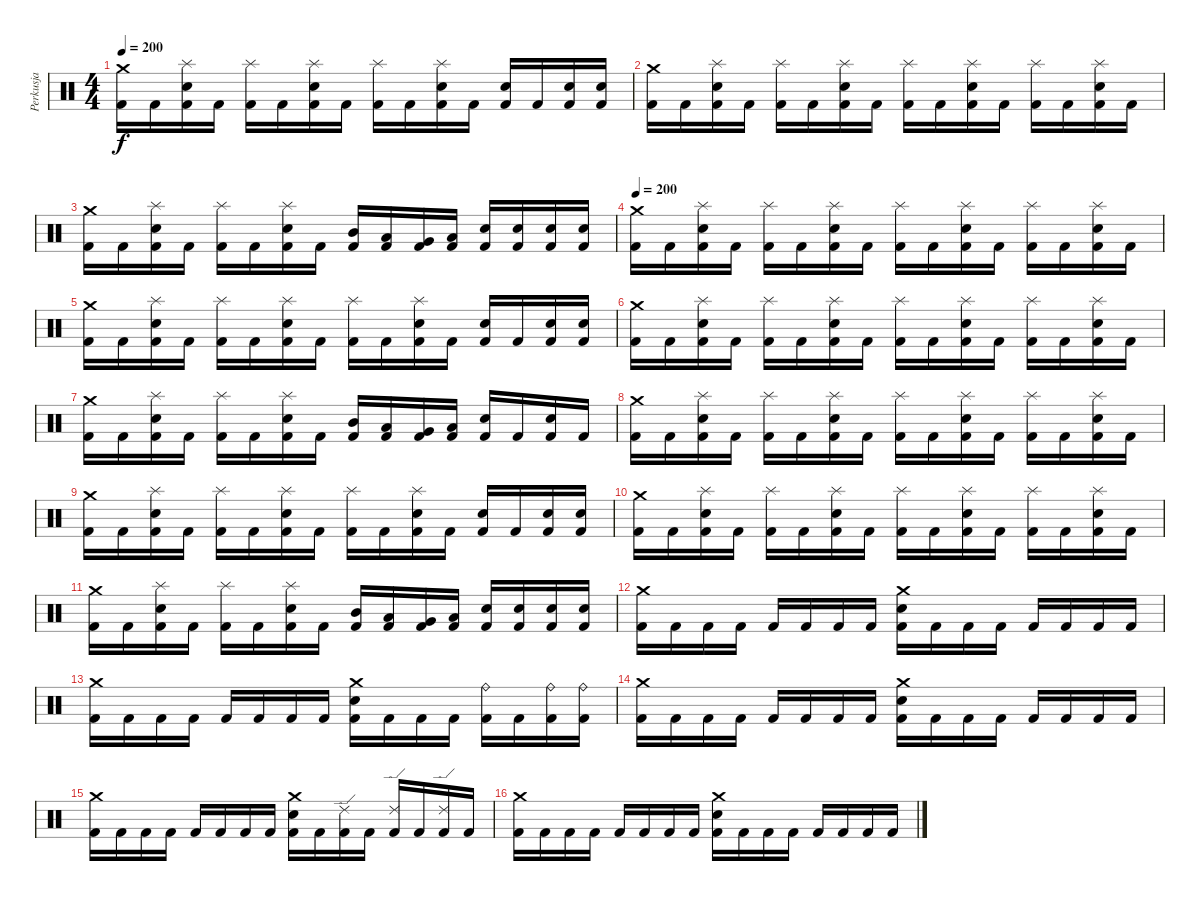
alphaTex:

\track ("Perkusja" "Perkusja") {instrument percussion}
\staff {score}
\articulation defaults
\ts (4 4)
\tempo 200
\clef neutral
\ks c
("Crash medium (hit)" "Kick (hit) 2").16{dy f} "Kick (hit) 2".16 ("Splash (hit)" "Electric Snare (hit)" "Kick (hit) 2").16 "Kick (hit) 2".16 ("Splash (hit)" "Kick (hit) 2").16 "Kick (hit) 2".16 ("Splash (hit)" "Electric Snare (hit)" "Kick (hit) 2").16 "Kick (hit) 2".16 ("Splash (hit)" "Kick (hit) 2").16 "Kick (hit) 2".16 ("Splash (hit)" "Electric Snare (hit)" "Kick (hit) 2").16 "Kick (hit) 2".16 ("Electric Snare (hit)" "Kick (hit) 2").16 "Kick (hit) 2".16 ("Electric Snare (hit)" "Kick (hit) 2").16 ("Electric Snare (hit)" "Kick (hit) 2").16 |
("Crash medium (hit)" "Kick (hit) 2").16 "Kick (hit) 2".16 ("Splash (hit)" "Electric Snare (hit)" "Kick (hit) 2").16 "Kick (hit) 2".16 ("Splash (hit)" "Kick (hit) 2").16 "Kick (hit) 2".16 ("Splash (hit)" "Electric Snare (hit)" "Kick (hit) 2").16 "Kick (hit) 2".16 ("Splash (hit)" "Kick (hit) 2").16 "Kick (hit) 2".16 ("Splash (hit)" "Electric Snare (hit)" "Kick (hit) 2").16 "Kick (hit) 2".16 ("Splash (hit)" "Kick (hit) 2").16 "Kick (hit) 2".16 ("Splash (hit)" "Electric Snare (hit)" "Kick (hit) 2").16 "Kick (hit) 2".16 |
("Crash medium (hit)" "Kick (hit) 2").16 "Kick (hit) 2".16 ("Splash (hit)" "Electric Snare (hit)" "Kick (hit) 2").16 "Kick (hit) 2".16 ("Splash (hit)" "Kick (hit) 2").16 "Kick (hit) 2".16 ("Splash (hit)" "Electric Snare (hit)" "Kick (hit) 2").16 "Kick (hit) 2".16 ("Mid Tom (hit)" "Kick (hit) 2").16 ("Low Tom (hit)" "Kick (hit) 2").16 ("Very Low Tom (hit)" "Kick (hit) 2").16 ("Low Floor Tom (hit)" "Kick (hit) 2").16 ("Electric Snare (hit)" "Kick (hit) 2").16 ("Electric Snare (hit)" "Kick (hit) 2").16 ("Electric Snare (hit)" "Kick (hit) 2").16 ("Electric Snare (hit)" "Kick (hit) 2").16 |
\tempo 200
("Crash medium (hit)" "Kick (hit) 2").16 "Kick (hit) 2".16 ("Splash (hit)" "Electric Snare (hit)" "Kick (hit) 2").16 "Kick (hit) 2".16 ("Splash (hit)" "Kick (hit) 2").16 "Kick (hit) 2".16 ("Splash (hit)" "Electric Snare (hit)" "Kick (hit) 2").16 "Kick (hit) 2".16 ("Splash (hit)" "Kick (hit) 2").16 "Kick (hit) 2".16 ("Splash (hit)" "Electric Snare (hit)" "Kick (hit) 2").16 "Kick (hit) 2".16 ("Splash (hit)" "Kick (hit) 2").16 "Kick (hit) 2".16 ("Splash (hit)" "Electric Snare (hit)" "Kick (hit) 2").16 "Kick (hit) 2".16 |
("Crash medium (hit)" "Kick (hit) 2").16 "Kick (hit) 2".16 ("Splash (hit)" "Electric Snare (hit)" "Kick (hit) 2").16 "Kick (hit) 2".16 ("Splash (hit)" "Kick (hit) 2").16 "Kick (hit) 2".16 ("Splash (hit)" "Electric Snare (hit)" "Kick (hit) 2").16 "Kick (hit) 2".16 ("Splash (hit)" "Kick (hit) 2").16 "Kick (hit) 2".16 ("Splash (hit)" "Electric Snare (hit)" "Kick (hit) 2").16 "Kick (hit) 2".16 ("Electric Snare (hit)" "Kick (hit) 2").16 "Kick (hit) 2".16 ("Electric Snare (hit)" "Kick (hit) 2").16 ("Electric Snare (hit)" "Kick (hit) 2").16 |
("Crash medium (hit)" "Kick (hit) 2").16 "Kick (hit) 2".16 ("Splash (hit)" "Electric Snare (hit)" "Kick (hit) 2").16 "Kick (hit) 2".16 ("Splash (hit)" "Kick (hit) 2").16 "Kick (hit) 2".16 ("Splash (hit)" "Electric Snare (hit)" "Kick (hit) 2").16 "Kick (hit) 2".16 ("Splash (hit)" "Kick (hit) 2").16 "Kick (hit) 2".16 ("Splash (hit)" "Electric Snare (hit)" "Kick (hit) 2").16 "Kick (hit) 2".16 ("Splash (hit)" "Kick (hit) 2").16 "Kick (hit) 2".16 ("Splash (hit)" "Electric Snare (hit)" "Kick (hit) 2").16 "Kick (hit) 2".16 |
("Crash medium (hit)" "Kick (hit) 2").16 "Kick (hit) 2".16 ("Splash (hit)" "Electric Snare (hit)" "Kick (hit) 2").16 "Kick (hit) 2".16 ("Splash (hit)" "Kick (hit) 2").16 "Kick (hit) 2".16 ("Splash (hit)" "Electric Snare (hit)" "Kick (hit) 2").16 "Kick (hit) 2".16 ("Mid Tom (hit)" "Kick (hit) 2").16 ("Low Tom (hit)" "Kick (hit) 2").16 ("Very Low Tom (hit)" "Kick (hit) 2").16 ("Low Floor Tom (hit)" "Kick (hit) 2").16 ("Electric Snare (hit)" "Kick (hit) 2").16 "Kick (hit) 2".16 ("Electric Snare (hit)" "Kick (hit) 2").16 "Kick (hit) 2".16 |
("Crash medium (hit)" "Kick (hit) 2").16 "Kick (hit) 2".16 ("Splash (hit)" "Electric Snare (hit)" "Kick (hit) 2").16 "Kick (hit) 2".16 ("Splash (hit)" "Kick (hit) 2").16 "Kick (hit) 2".16 ("Splash (hit)" "Electric Snare (hit)" "Kick (hit) 2").16 "Kick (hit) 2".16 ("Splash (hit)" "Kick (hit) 2").16 "Kick (hit) 2".16 ("Splash (hit)" "Electric Snare (hit)" "Kick (hit) 2").16 "Kick (hit) 2".16 ("Splash (hit)" "Kick (hit) 2").16 "Kick (hit) 2".16 ("Splash (hit)" "Electric Snare (hit)" "Kick (hit) 2").16 "Kick (hit) 2".16 |
("Crash medium (hit)" "Kick (hit) 2").16 "Kick (hit) 2".16 ("Splash (hit)" "Electric Snare (hit)" "Kick (hit) 2").16 "Kick (hit) 2".16 ("Splash (hit)" "Kick (hit) 2").16 "Kick (hit) 2".16 ("Splash (hit)" "Electric Snare (hit)" "Kick (hit) 2").16 "Kick (hit) 2".16 ("Splash (hit)" "Kick (hit) 2").16 "Kick (hit) 2".16 ("Splash (hit)" "Electric Snare (hit)" "Kick (hit) 2").16 "Kick (hit) 2".16 ("Electric Snare (hit)" "Kick (hit) 2").16 "Kick (hit) 2".16 ("Electric Snare (hit)" "Kick (hit) 2").16 ("Electric Snare (hit)" "Kick (hit) 2").16 |
("Crash medium (hit)" "Kick (hit) 2").16 "Kick (hit) 2".16 ("Splash (hit)" "Electric Snare (hit)" "Kick (hit) 2").16 "Kick (hit) 2".16 ("Splash (hit)" "Kick (hit) 2").16 "Kick (hit) 2".16 ("Splash (hit)" "Electric Snare (hit)" "Kick (hit) 2").16 "Kick (hit) 2".16 ("Splash (hit)" "Kick (hit) 2").16 "Kick (hit) 2".16 ("Splash (hit)" "Electric Snare (hit)" "Kick (hit) 2").16 "Kick (hit) 2".16 ("Splash (hit)" "Kick (hit) 2").16 "Kick (hit) 2".16 ("Splash (hit)" "Electric Snare (hit)" "Kick (hit) 2").16 "Kick (hit) 2".16 |
("Crash medium (hit)" "Kick (hit) 2").16 "Kick (hit) 2".16 ("Splash (hit)" "Electric Snare (hit)" "Kick (hit) 2").16 "Kick (hit) 2".16 ("Splash (hit)" "Kick (hit) 2").16 "Kick (hit) 2".16 ("Splash (hit)" "Electric Snare (hit)" "Kick (hit) 2").16 "Kick (hit) 2".16 ("Mid Tom (hit)" "Kick (hit) 2").16 ("Low Tom (hit)" "Kick (hit) 2").16 ("Very Low Tom (hit)" "Kick (hit) 2").16 ("Low Floor Tom (hit)" "Kick (hit) 2").16 ("Electric Snare (hit)" "Kick (hit) 2").16 ("Electric Snare (hit)" "Kick (hit) 2").16 ("Electric Snare (hit)" "Kick (hit) 2").16 ("Electric Snare (hit)" "Kick (hit) 2").16 |
("Crash medium (hit)" "Kick (hit) 2").16 "Kick (hit) 2".16 "Kick (hit) 2".16 "Kick (hit) 2".16 "Kick (hit) 2".16 "Kick (hit) 2".16 "Kick (hit) 2".16 "Kick (hit) 2".16 ("Crash medium (hit)" "Electric Snare (hit)" "Kick (hit) 2").16 "Kick (hit) 2".16 "Kick (hit) 2".16 "Kick (hit) 2".16 "Kick (hit) 2".16 "Kick (hit) 2".16 "Kick (hit) 2".16 "Kick (hit) 2".16 |
("Crash medium (hit)" "Kick (hit) 2").16 "Kick (hit) 2".16 "Kick (hit) 2".16 "Kick (hit) 2".16 "Kick (hit) 2".16 "Kick (hit) 2".16 "Kick (hit) 2".16 "Kick (hit) 2".16 ("Crash medium (hit)" "Electric Snare (hit)" "Kick (hit) 2").16 "Kick (hit) 2".16 "Kick (hit) 2".16 "Kick (hit) 2".16 ("Ride (bell)" "Kick (hit) 2").16 "Kick (hit) 2".16 ("Ride (bell)" "Kick (hit) 2").16 ("Ride (bell)" "Kick (hit) 2").16 |
("Crash medium (hit)" "Kick (hit) 2").16 "Kick (hit) 2".16 "Kick (hit) 2".16 "Kick (hit) 2".16 "Kick (hit) 2".16 "Kick (hit) 2".16 "Kick (hit) 2".16 "Kick (hit) 2".16 ("Crash medium (hit)" "Electric Snare (hit)" "Kick (hit) 2").16 "Kick (hit) 2".16 "Kick (hit) 2".16 "Kick (hit) 2".16 "Kick (hit) 2".16 "Kick (hit) 2".16 "Kick (hit) 2".16 "Kick (hit) 2".16 |
("Crash medium (hit)" "Kick (hit) 2").16 "Kick (hit) 2".16 "Kick (hit) 2".16 "Kick (hit) 2".16 "Kick (hit) 2".16 "Kick (hit) 2".16 "Kick (hit) 2".16 "Kick (hit) 2".16 ("Crash medium (hit)" "Electric Snare (hit)" "Kick (hit) 2").16 "Kick (hit) 2".16 ("Ride (edge) 2" "Kick (hit) 2").16 "Kick (hit) 2".16 ("Ride (edge) 2" "Kick (hit) 2").16 "Kick (hit) 2".16 ("Ride (edge) 2" "Kick (hit) 2").16 "Kick (hit) 2".16 |
("Crash medium (hit)" "Kick (hit) 2").16 "Kick (hit) 2".16 "Kick (hit) 2".16 "Kick (hit) 2".16 "Kick (hit) 2".16 "Kick (hit) 2".16 "Kick (hit) 2".16 "Kick (hit) 2".16 ("Crash medium (hit)" "Electric Snare (hit)" "Kick (hit) 2").16 "Kick (hit) 2".16 "Kick (hit) 2".16 "Kick (hit) 2".16 "Kick (hit) 2".16 "Kick (hit) 2".16 "Kick (hit) 2".16 "Kick (hit) 2".16
